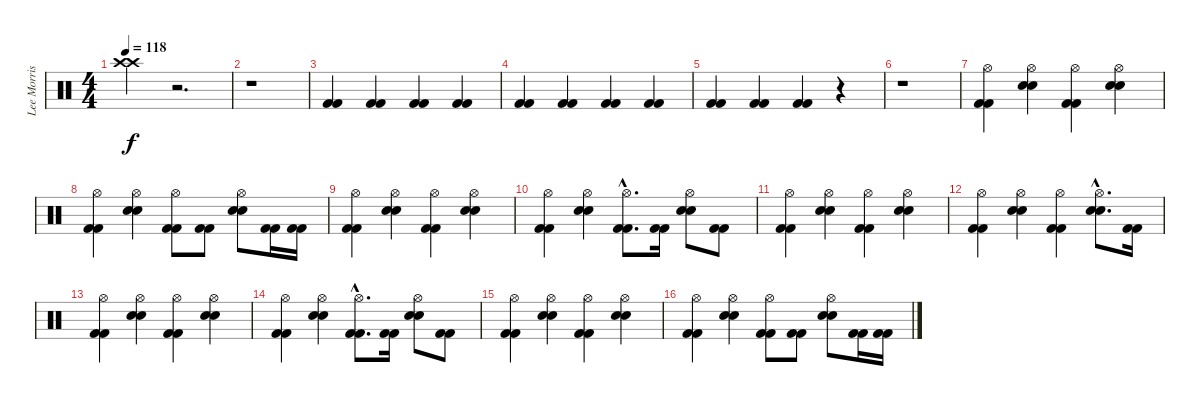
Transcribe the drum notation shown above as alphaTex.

\track ("Lee Morris" "Lee Morris") {instrument percussion}
\staff {score}
\articulation defaults
\ts (4 4)
\tempo 118
\clef neutral
\ks c
("Crash high (hit)" "Crash high (hit)").4{dy f} r.2{d} |
r.1 |
("Kick (hit) 2" "Kick (hit) 2").4 ("Kick (hit) 2" "Kick (hit) 2").4 ("Kick (hit) 2" "Kick (hit) 2").4 ("Kick (hit) 2" "Kick (hit) 2").4 |
("Kick (hit) 2" "Kick (hit) 2").4 ("Kick (hit) 2" "Kick (hit) 2").4 ("Kick (hit) 2" "Kick (hit) 2").4 ("Kick (hit) 2" "Kick (hit) 2").4 |
("Kick (hit) 2" "Kick (hit) 2").4 ("Kick (hit) 2" "Kick (hit) 2").4 ("Kick (hit) 2" "Kick (hit) 2").4 r.4 |
r.1 |
("Hi-Hat (open)" "Kick (hit) 2" "Kick (hit) 2").4 ("Hi-Hat (open)" "Snare (hit) 2" "Snare (hit) 2").4 ("Hi-Hat (open)" "Kick (hit) 2" "Kick (hit) 2").4 ("Hi-Hat (open)" "Snare (hit) 2" "Snare (hit) 2").4 |
("Hi-Hat (open)" "Kick (hit) 2" "Kick (hit) 2").4 ("Hi-Hat (open)" "Snare (hit) 2" "Snare (hit) 2").4 ("Hi-Hat (open)" "Kick (hit) 2" "Kick (hit) 2").8 ("Kick (hit) 2" "Kick (hit) 2").8 ("Hi-Hat (open)" "Snare (hit) 2" "Snare (hit) 2").8 ("Kick (hit) 2" "Kick (hit) 2").16 ("Kick (hit) 2" "Kick (hit) 2").16 |
("Hi-Hat (open)" "Kick (hit) 2" "Kick (hit) 2").4 ("Hi-Hat (open)" "Snare (hit) 2" "Snare (hit) 2").4 ("Hi-Hat (open)" "Kick (hit) 2" "Kick (hit) 2").4 ("Hi-Hat (open)" "Snare (hit) 2" "Snare (hit) 2").4 |
("Hi-Hat (open)" "Kick (hit) 2" "Kick (hit) 2").4 ("Hi-Hat (open)" "Snare (hit) 2" "Snare (hit) 2").4 ("Hi-Hat (open)"{hac} "Kick (hit) 2"{hac} "Kick (hit) 2"{hac}).8{d} ("Kick (hit) 2" "Kick (hit) 2").16 ("Hi-Hat (open)" "Snare (hit) 2" "Snare (hit) 2").8 ("Kick (hit) 2" "Kick (hit) 2").8 |
("Hi-Hat (open)" "Kick (hit) 2" "Kick (hit) 2").4 ("Hi-Hat (open)" "Snare (hit) 2" "Snare (hit) 2").4 ("Hi-Hat (open)" "Kick (hit) 2" "Kick (hit) 2").4 ("Hi-Hat (open)" "Snare (hit) 2" "Snare (hit) 2").4 |
("Hi-Hat (open)" "Kick (hit) 2" "Kick (hit) 2").4 ("Hi-Hat (open)" "Snare (hit) 2" "Snare (hit) 2").4 ("Hi-Hat (open)" "Kick (hit) 2" "Kick (hit) 2").4 ("Hi-Hat (open)"{hac} "Snare (hit) 2"{hac} "Snare (hit) 2"{hac}).8{d} ("Kick (hit) 2" "Kick (hit) 2").16 |
("Hi-Hat (open)" "Kick (hit) 2" "Kick (hit) 2").4 ("Hi-Hat (open)" "Snare (hit) 2" "Snare (hit) 2").4 ("Hi-Hat (open)" "Kick (hit) 2" "Kick (hit) 2").4 ("Hi-Hat (open)" "Snare (hit) 2" "Snare (hit) 2").4 |
("Hi-Hat (open)" "Kick (hit) 2" "Kick (hit) 2").4 ("Hi-Hat (open)" "Snare (hit) 2" "Snare (hit) 2").4 ("Hi-Hat (open)"{hac} "Kick (hit) 2"{hac} "Kick (hit) 2"{hac}).8{d} ("Kick (hit) 2" "Kick (hit) 2").16 ("Hi-Hat (open)" "Snare (hit) 2" "Snare (hit) 2").8 ("Kick (hit) 2" "Kick (hit) 2").8 |
("Hi-Hat (open)" "Kick (hit) 2" "Kick (hit) 2").4 ("Hi-Hat (open)" "Snare (hit) 2" "Snare (hit) 2").4 ("Hi-Hat (open)" "Kick (hit) 2" "Kick (hit) 2").4 ("Hi-Hat (open)" "Snare (hit) 2" "Snare (hit) 2").4 |
("Hi-Hat (open)" "Kick (hit) 2" "Kick (hit) 2").4 ("Hi-Hat (open)" "Snare (hit) 2" "Snare (hit) 2").4 ("Hi-Hat (open)" "Kick (hit) 2" "Kick (hit) 2").8 ("Kick (hit) 2" "Kick (hit) 2").8 ("Hi-Hat (open)" "Snare (hit) 2" "Snare (hit) 2").8 ("Kick (hit) 2" "Kick (hit) 2").16 ("Kick (hit) 2" "Kick (hit) 2").16
